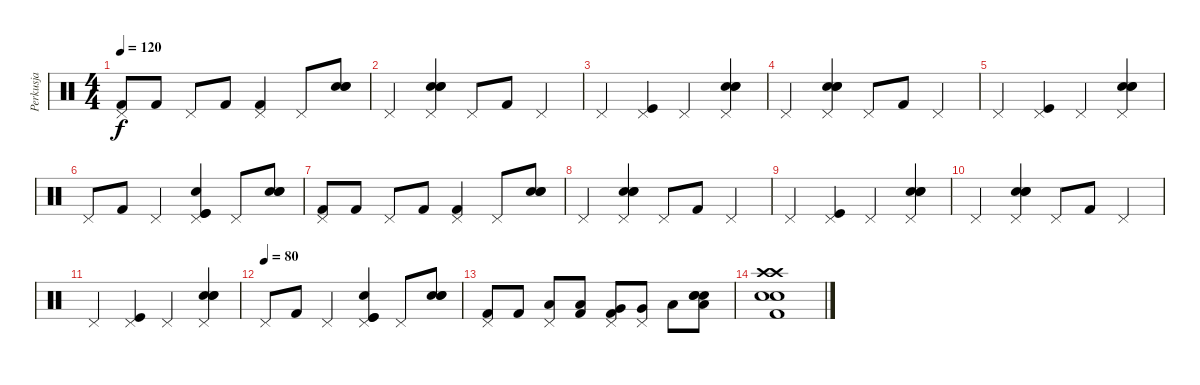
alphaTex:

\track ("Perkusja" "Perkusja") {instrument percussion}
\staff {score}
\articulation defaults
\ts (4 4)
\tempo 120
\clef neutral
\ks c
("Pedal Hi-Hat (hit)" "Kick (hit) 2").8{dy f} "Kick (hit) 2".8 "Pedal Hi-Hat (hit)".8 "Kick (hit) 2".8 ("Pedal Hi-Hat (hit)" "Kick (hit) 2").4 "Pedal Hi-Hat (hit)".8 ("Snare (hit) 2" "Snare (hit) 2" "Electric Snare (hit)").8 |
"Pedal Hi-Hat (hit)".4 ("Pedal Hi-Hat (hit)" "Snare (hit) 2" "Snare (hit) 2" "Electric Snare (hit)").4 "Pedal Hi-Hat (hit)".8 "Kick (hit) 2".8 "Pedal Hi-Hat (hit)".4 |
"Pedal Hi-Hat (hit)".4 ("Pedal Hi-Hat (hit)" "Kick (hit)").4 "Pedal Hi-Hat (hit)".4 ("Pedal Hi-Hat (hit)" "Snare (hit) 2" "Snare (hit) 2" "Electric Snare (hit)").4 |
"Pedal Hi-Hat (hit)".4 ("Pedal Hi-Hat (hit)" "Snare (hit) 2" "Snare (hit) 2" "Electric Snare (hit)").4 "Pedal Hi-Hat (hit)".8 "Kick (hit) 2".8 "Pedal Hi-Hat (hit)".4 |
"Pedal Hi-Hat (hit)".4 ("Pedal Hi-Hat (hit)" "Kick (hit)").4 "Pedal Hi-Hat (hit)".4 ("Pedal Hi-Hat (hit)" "Snare (hit) 2" "Snare (hit) 2" "Electric Snare (hit)").4 |
"Pedal Hi-Hat (hit)".8 "Kick (hit) 2".8 "Pedal Hi-Hat (hit)".4 ("Pedal Hi-Hat (hit)" "Electric Snare (hit)" "Kick (hit)" "Kick (hit)").4 "Pedal Hi-Hat (hit)".8 ("Snare (hit) 2" "Snare (hit) 2" "Electric Snare (hit)").8 |
("Pedal Hi-Hat (hit)" "Kick (hit) 2").8 "Kick (hit) 2".8 "Pedal Hi-Hat (hit)".8 "Kick (hit) 2".8 ("Pedal Hi-Hat (hit)" "Kick (hit) 2").4 "Pedal Hi-Hat (hit)".8 ("Snare (hit) 2" "Snare (hit) 2" "Electric Snare (hit)").8 |
"Pedal Hi-Hat (hit)".4 ("Pedal Hi-Hat (hit)" "Snare (hit) 2" "Snare (hit) 2" "Electric Snare (hit)").4 "Pedal Hi-Hat (hit)".8 "Kick (hit) 2".8 "Pedal Hi-Hat (hit)".4 |
"Pedal Hi-Hat (hit)".4 ("Pedal Hi-Hat (hit)" "Kick (hit)").4 "Pedal Hi-Hat (hit)".4 ("Pedal Hi-Hat (hit)" "Snare (hit) 2" "Snare (hit) 2" "Electric Snare (hit)").4 |
"Pedal Hi-Hat (hit)".4 ("Pedal Hi-Hat (hit)" "Snare (hit) 2" "Snare (hit) 2" "Electric Snare (hit)").4 "Pedal Hi-Hat (hit)".8 "Kick (hit) 2".8 "Pedal Hi-Hat (hit)".4 |
"Pedal Hi-Hat (hit)".4 ("Pedal Hi-Hat (hit)" "Kick (hit)").4 "Pedal Hi-Hat (hit)".4 ("Pedal Hi-Hat (hit)" "Snare (hit) 2" "Snare (hit) 2" "Electric Snare (hit)").4 |
\tempo (80)
"Pedal Hi-Hat (hit)".8 "Kick (hit) 2".8 "Pedal Hi-Hat (hit)".4 ("Pedal Hi-Hat (hit)" "Electric Snare (hit)" "Kick (hit)" "Kick (hit)").4 "Pedal Hi-Hat (hit)".8 ("Snare (hit) 2" "Snare (hit) 2" "Electric Snare (hit)").8 |
("Pedal Hi-Hat (hit)" "Kick (hit) 2").8 "Kick (hit) 2".8 ("Pedal Hi-Hat (hit)" "Low Tom (hit)").8 ("Low Tom (hit)" "Kick (hit) 2").8 ("Pedal Hi-Hat (hit)" "Very Low Tom (hit)" "Kick (hit) 2").8 ("Pedal Hi-Hat (hit)" "Very Low Tom (hit)").8 "Low Floor Tom (hit)".8 ("Low Floor Tom (hit)" "Snare (hit) 2" "Snare (hit) 2" "Electric Snare (hit)").8 |
("Crash high (hit)" "Crash high (hit)" "Snare (hit) 2" "Electric Snare (hit)" "Kick (hit) 2").1
